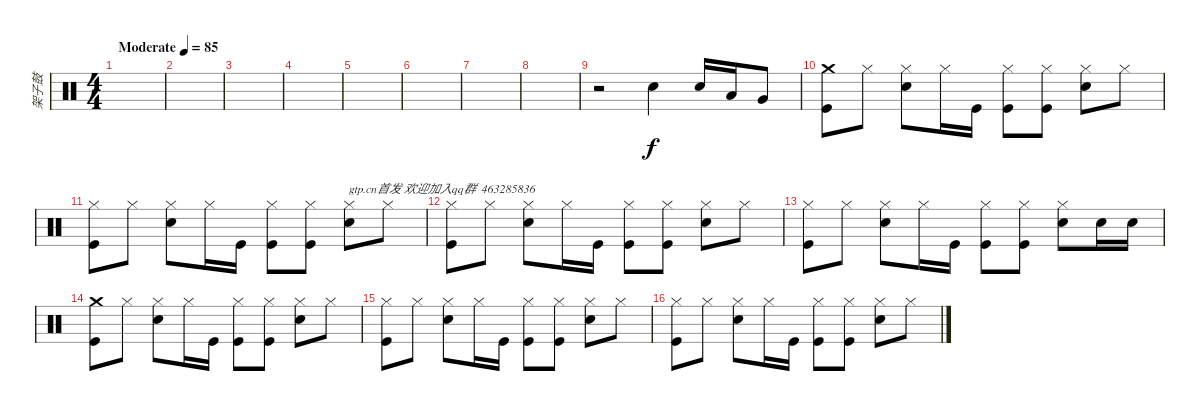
\track ("架子鼓" "架子鼓") {instrument percussion}
\staff {score}
\articulation defaults
\ts (4 4)
\tempo (85 "Moderate")
\clef neutral
\ks c
|
|
|
|
|
|
|
|
r.2 "Electric Snare (hit)".4 "Electric Snare (hit)".16 "Low Tom (hit)".16 "Very Low Tom (hit)".8 |
("Crash medium (hit)" "Kick (hit)").8 "Hi-Hat (closed)".8 ("Hi-Hat (closed)" "Electric Snare (hit)").8 "Hi-Hat (closed)".16 "Kick (hit)".16 ("Hi-Hat (closed)" "Kick (hit)").8 ("Hi-Hat (closed)" "Kick (hit)").8 ("Hi-Hat (closed)" "Electric Snare (hit)").8 "Hi-Hat (closed)".8 |
("Hi-Hat (closed)" "Kick (hit)").8 "Hi-Hat (closed)".8 ("Hi-Hat (closed)" "Electric Snare (hit)").8 "Hi-Hat (closed)".16 "Kick (hit)".16 ("Hi-Hat (closed)" "Kick (hit)").8 ("Hi-Hat (closed)" "Kick (hit)").8 ("Hi-Hat (closed)" "Electric Snare (hit)").8{txt "gtp.cn首发 欢迎加入qq群  463285836"} "Hi-Hat (closed)".8 |
("Hi-Hat (closed)" "Kick (hit)").8 "Hi-Hat (closed)".8 ("Hi-Hat (closed)" "Electric Snare (hit)").8 "Hi-Hat (closed)".16 "Kick (hit)".16 ("Hi-Hat (closed)" "Kick (hit)").8 ("Hi-Hat (closed)" "Kick (hit)").8 ("Hi-Hat (closed)" "Electric Snare (hit)").8 "Hi-Hat (closed)".8 |
("Hi-Hat (closed)" "Kick (hit)").8 "Hi-Hat (closed)".8 ("Hi-Hat (closed)" "Electric Snare (hit)").8 "Hi-Hat (closed)".16 "Kick (hit)".16 ("Hi-Hat (closed)" "Kick (hit)").8 ("Hi-Hat (closed)" "Kick (hit)").8 ("Hi-Hat (closed)" "Electric Snare (hit)").8 "Electric Snare (hit)".16 "Electric Snare (hit)".16 |
("Crash medium (hit)" "Kick (hit)").8 "Hi-Hat (closed)".8 ("Hi-Hat (closed)" "Electric Snare (hit)").8 "Hi-Hat (closed)".16 "Kick (hit)".16 ("Hi-Hat (closed)" "Kick (hit)").8 ("Hi-Hat (closed)" "Kick (hit)").8 ("Hi-Hat (closed)" "Electric Snare (hit)").8 "Hi-Hat (closed)".8 |
("Hi-Hat (closed)" "Kick (hit)").8 "Hi-Hat (closed)".8 ("Hi-Hat (closed)" "Electric Snare (hit)").8 "Hi-Hat (closed)".16 "Kick (hit)".16 ("Hi-Hat (closed)" "Kick (hit)").8 ("Hi-Hat (closed)" "Kick (hit)").8 ("Hi-Hat (closed)" "Electric Snare (hit)").8 "Hi-Hat (closed)".8 |
("Hi-Hat (closed)" "Kick (hit)").8 "Hi-Hat (closed)".8 ("Hi-Hat (closed)" "Electric Snare (hit)").8 "Hi-Hat (closed)".16 "Kick (hit)".16 ("Hi-Hat (closed)" "Kick (hit)").8 ("Hi-Hat (closed)" "Kick (hit)").8 ("Hi-Hat (closed)" "Electric Snare (hit)").8 "Hi-Hat (closed)".8
